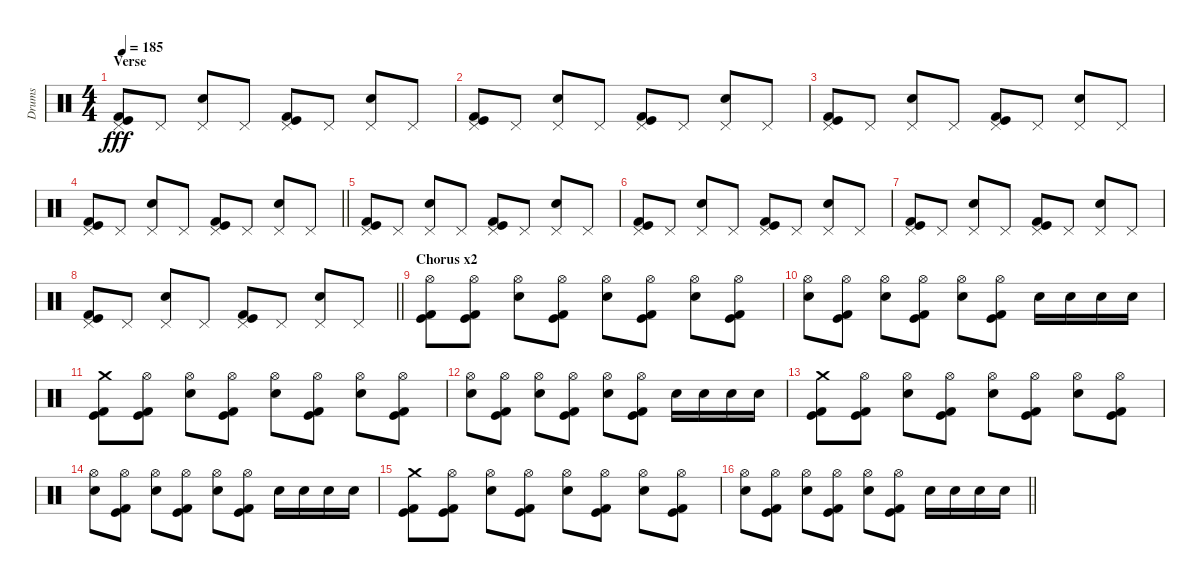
\track ("Drums" "Drums") {instrument percussion}
\staff {score}
\articulation defaults
\ts (4 4)
\section ("" "Verse")
\tempo 185
\clef neutral
\ks c
("Pedal Hi-Hat (hit)" "Kick (hit)" "Kick (hit) 2").8{dy fff} "Pedal Hi-Hat (hit)".8 ("Pedal Hi-Hat (hit)" "Snare (hit) 2").8 "Pedal Hi-Hat (hit)".8 ("Pedal Hi-Hat (hit)" "Kick (hit)" "Kick (hit) 2").8 "Pedal Hi-Hat (hit)".8 ("Pedal Hi-Hat (hit)" "Snare (hit) 2").8 "Pedal Hi-Hat (hit)".8 |
("Pedal Hi-Hat (hit)" "Kick (hit)" "Kick (hit) 2").8 "Pedal Hi-Hat (hit)".8 ("Pedal Hi-Hat (hit)" "Snare (hit) 2").8 "Pedal Hi-Hat (hit)".8 ("Pedal Hi-Hat (hit)" "Kick (hit)" "Kick (hit) 2").8 "Pedal Hi-Hat (hit)".8 ("Pedal Hi-Hat (hit)" "Snare (hit) 2").8 "Pedal Hi-Hat (hit)".8 |
("Pedal Hi-Hat (hit)" "Kick (hit)" "Kick (hit) 2").8 "Pedal Hi-Hat (hit)".8 ("Pedal Hi-Hat (hit)" "Snare (hit) 2").8 "Pedal Hi-Hat (hit)".8 ("Pedal Hi-Hat (hit)" "Kick (hit)" "Kick (hit) 2").8 "Pedal Hi-Hat (hit)".8 ("Pedal Hi-Hat (hit)" "Snare (hit) 2").8 "Pedal Hi-Hat (hit)".8 |
\barLineRight lightlight
("Pedal Hi-Hat (hit)" "Kick (hit)" "Kick (hit) 2").8 "Pedal Hi-Hat (hit)".8 ("Pedal Hi-Hat (hit)" "Snare (hit) 2").8 "Pedal Hi-Hat (hit)".8 ("Pedal Hi-Hat (hit)" "Kick (hit)" "Kick (hit) 2").8 "Pedal Hi-Hat (hit)".8 ("Pedal Hi-Hat (hit)" "Snare (hit) 2").8 "Pedal Hi-Hat (hit)".8 |
("Pedal Hi-Hat (hit)" "Kick (hit)" "Kick (hit) 2").8 "Pedal Hi-Hat (hit)".8 ("Pedal Hi-Hat (hit)" "Snare (hit) 2").8 "Pedal Hi-Hat (hit)".8 ("Pedal Hi-Hat (hit)" "Kick (hit)" "Kick (hit) 2").8 "Pedal Hi-Hat (hit)".8 ("Pedal Hi-Hat (hit)" "Snare (hit) 2").8 "Pedal Hi-Hat (hit)".8 |
("Pedal Hi-Hat (hit)" "Kick (hit)" "Kick (hit) 2").8 "Pedal Hi-Hat (hit)".8 ("Pedal Hi-Hat (hit)" "Snare (hit) 2").8 "Pedal Hi-Hat (hit)".8 ("Pedal Hi-Hat (hit)" "Kick (hit)" "Kick (hit) 2").8 "Pedal Hi-Hat (hit)".8 ("Pedal Hi-Hat (hit)" "Snare (hit) 2").8 "Pedal Hi-Hat (hit)".8 |
("Pedal Hi-Hat (hit)" "Kick (hit)" "Kick (hit) 2").8 "Pedal Hi-Hat (hit)".8 ("Pedal Hi-Hat (hit)" "Snare (hit) 2").8 "Pedal Hi-Hat (hit)".8 ("Pedal Hi-Hat (hit)" "Kick (hit)" "Kick (hit) 2").8 "Pedal Hi-Hat (hit)".8 ("Pedal Hi-Hat (hit)" "Snare (hit) 2").8 "Pedal Hi-Hat (hit)".8 |
\barLineRight lightlight
("Pedal Hi-Hat (hit)" "Kick (hit)" "Kick (hit) 2").8 "Pedal Hi-Hat (hit)".8 ("Pedal Hi-Hat (hit)" "Snare (hit) 2").8 "Pedal Hi-Hat (hit)".8 ("Pedal Hi-Hat (hit)" "Kick (hit)" "Kick (hit) 2").8 "Pedal Hi-Hat (hit)".8 ("Pedal Hi-Hat (hit)" "Snare (hit) 2").8 "Pedal Hi-Hat (hit)".8 |
\section ("" "Chorus x2")
("Hi-Hat (open)" "Kick (hit)" "Kick (hit) 2").8 ("Hi-Hat (open)" "Kick (hit)" "Kick (hit) 2").8 ("Hi-Hat (open)" "Snare (hit) 2").8 ("Hi-Hat (open)" "Kick (hit)" "Kick (hit) 2").8 ("Hi-Hat (open)" "Snare (hit) 2").8 ("Hi-Hat (open)" "Kick (hit)" "Kick (hit) 2").8 ("Hi-Hat (open)" "Snare (hit) 2").8 ("Hi-Hat (open)" "Kick (hit)" "Kick (hit) 2").8 |
("Hi-Hat (open)" "Snare (hit) 2").8 ("Hi-Hat (open)" "Kick (hit)" "Kick (hit) 2").8 ("Hi-Hat (open)" "Snare (hit) 2").8 ("Hi-Hat (open)" "Kick (hit)" "Kick (hit) 2").8 ("Hi-Hat (open)" "Snare (hit) 2").8 ("Hi-Hat (open)" "Kick (hit)" "Kick (hit) 2").8 "Snare (hit) 2".16 "Snare (hit) 2".16 "Snare (hit) 2".16 "Snare (hit) 2".16 |
("Crash medium (hit)" "Kick (hit)" "Kick (hit) 2").8 ("Hi-Hat (open)" "Kick (hit)" "Kick (hit) 2").8 ("Hi-Hat (open)" "Snare (hit) 2").8 ("Hi-Hat (open)" "Kick (hit)" "Kick (hit) 2").8 ("Hi-Hat (open)" "Snare (hit) 2").8 ("Hi-Hat (open)" "Kick (hit)" "Kick (hit) 2").8 ("Hi-Hat (open)" "Snare (hit) 2").8 ("Hi-Hat (open)" "Kick (hit)" "Kick (hit) 2").8 |
("Hi-Hat (open)" "Snare (hit) 2").8 ("Hi-Hat (open)" "Kick (hit)" "Kick (hit) 2").8 ("Hi-Hat (open)" "Snare (hit) 2").8 ("Hi-Hat (open)" "Kick (hit)" "Kick (hit) 2").8 ("Hi-Hat (open)" "Snare (hit) 2").8 ("Hi-Hat (open)" "Kick (hit)" "Kick (hit) 2").8 "Snare (hit) 2".16 "Snare (hit) 2".16 "Snare (hit) 2".16 "Snare (hit) 2".16 |
("Crash medium (hit)" "Kick (hit)" "Kick (hit) 2").8 ("Hi-Hat (open)" "Kick (hit)" "Kick (hit) 2").8 ("Hi-Hat (open)" "Snare (hit) 2").8 ("Hi-Hat (open)" "Kick (hit)" "Kick (hit) 2").8 ("Hi-Hat (open)" "Snare (hit) 2").8 ("Hi-Hat (open)" "Kick (hit)" "Kick (hit) 2").8 ("Hi-Hat (open)" "Snare (hit) 2").8 ("Hi-Hat (open)" "Kick (hit)" "Kick (hit) 2").8 |
("Hi-Hat (open)" "Snare (hit) 2").8 ("Hi-Hat (open)" "Kick (hit)" "Kick (hit) 2").8 ("Hi-Hat (open)" "Snare (hit) 2").8 ("Hi-Hat (open)" "Kick (hit)" "Kick (hit) 2").8 ("Hi-Hat (open)" "Snare (hit) 2").8 ("Hi-Hat (open)" "Kick (hit)" "Kick (hit) 2").8 "Snare (hit) 2".16 "Snare (hit) 2".16 "Snare (hit) 2".16 "Snare (hit) 2".16 |
("Crash medium (hit)" "Kick (hit)" "Kick (hit) 2").8 ("Hi-Hat (open)" "Kick (hit)" "Kick (hit) 2").8 ("Hi-Hat (open)" "Snare (hit) 2").8 ("Hi-Hat (open)" "Kick (hit)" "Kick (hit) 2").8 ("Hi-Hat (open)" "Snare (hit) 2").8 ("Hi-Hat (open)" "Kick (hit)" "Kick (hit) 2").8 ("Hi-Hat (open)" "Snare (hit) 2").8 ("Hi-Hat (open)" "Kick (hit)" "Kick (hit) 2").8 |
\barLineRight lightlight
("Hi-Hat (open)" "Snare (hit) 2").8 ("Hi-Hat (open)" "Kick (hit)" "Kick (hit) 2").8 ("Hi-Hat (open)" "Snare (hit) 2").8 ("Hi-Hat (open)" "Kick (hit)" "Kick (hit) 2").8 ("Hi-Hat (open)" "Snare (hit) 2").8 ("Hi-Hat (open)" "Kick (hit)" "Kick (hit) 2").8 "Snare (hit) 2".16 "Snare (hit) 2".16 "Snare (hit) 2".16 "Snare (hit) 2".16
